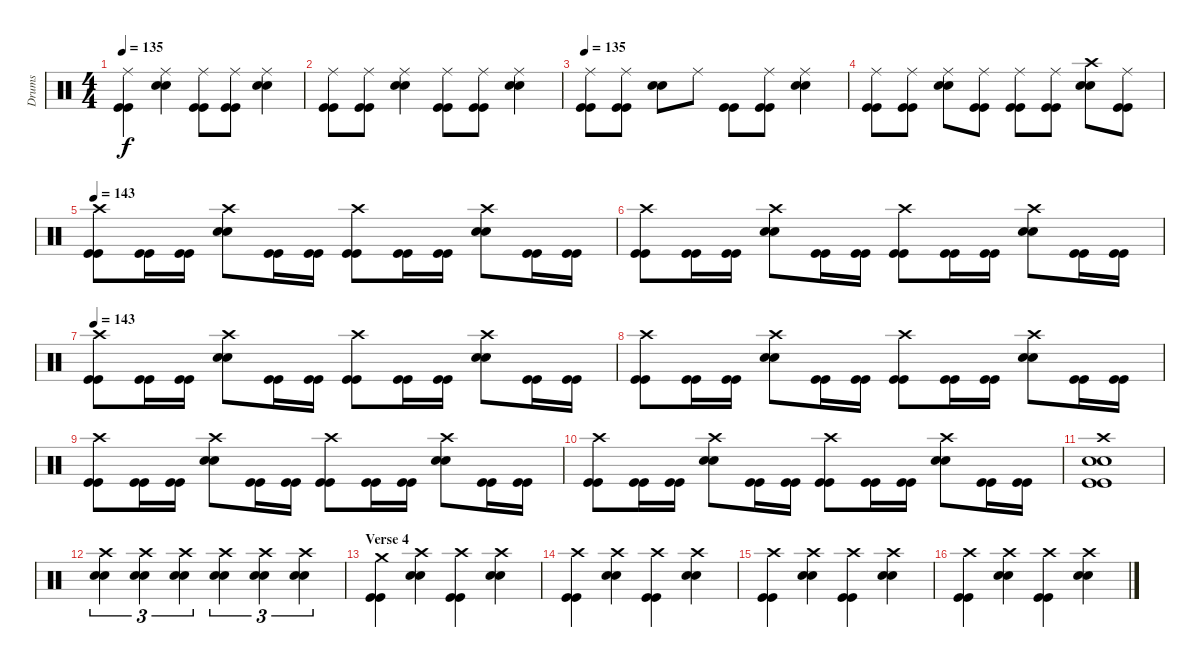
\track ("Drums" "Drums") {instrument percussion}
\staff {score}
\articulation defaults
\ts (4 4)
\tempo 135
\clef neutral
\ks c
("Ride (middle)" "Kick (hit)" "Kick (hit)").4{dy f} ("Ride (middle)" "Electric Snare (hit)" "Electric Snare (hit)").4 ("Ride (middle)" "Kick (hit)" "Kick (hit)").8 ("Ride (middle)" "Kick (hit)" "Kick (hit)").8 ("Ride (middle)" "Electric Snare (hit)" "Electric Snare (hit)").4 |
("Ride (middle)" "Kick (hit)" "Kick (hit)").8 ("Ride (middle)" "Kick (hit)" "Kick (hit)").8 ("Ride (middle)" "Electric Snare (hit)" "Electric Snare (hit)").4 ("Ride (middle)" "Kick (hit)" "Kick (hit)").8 ("Ride (middle)" "Kick (hit)" "Kick (hit)").8 ("Ride (middle)" "Electric Snare (hit)" "Electric Snare (hit)").4 |
\tempo 135
("Ride (middle)" "Kick (hit)" "Kick (hit)").8 ("Ride (middle)" "Kick (hit)" "Kick (hit)").8 ("Electric Snare (hit)" "Electric Snare (hit)").8 "Ride (middle)".8 ("Kick (hit)" "Kick (hit)").8 ("Ride (middle)" "Kick (hit)" "Kick (hit)").8 ("Ride (middle)" "Electric Snare (hit)" "Electric Snare (hit)").4 |
("Ride (middle)" "Kick (hit)" "Kick (hit)").8 ("Ride (middle)" "Kick (hit)" "Kick (hit)").8 ("Ride (middle)" "Electric Snare (hit)" "Electric Snare (hit)").8 ("Ride (middle)" "Kick (hit)" "Kick (hit)").8 ("Ride (middle)" "Kick (hit)" "Kick (hit)").8 ("Ride (middle)" "Kick (hit)" "Kick (hit)").8 ("Crash high (hit)" "Electric Snare (hit)" "Electric Snare (hit)").8 ("Ride (middle)" "Kick (hit)" "Kick (hit)").8 |
\tempo 143
("Crash high (hit)" "Kick (hit)" "Kick (hit)").8 ("Kick (hit)" "Kick (hit)").16 ("Kick (hit)" "Kick (hit)").16 ("Crash high (hit)" "Electric Snare (hit)" "Electric Snare (hit)").8 ("Kick (hit)" "Kick (hit)").16 ("Kick (hit)" "Kick (hit)").16 ("Crash high (hit)" "Kick (hit)" "Kick (hit)").8 ("Kick (hit)" "Kick (hit)").16 ("Kick (hit)" "Kick (hit)").16 ("Crash high (hit)" "Electric Snare (hit)" "Electric Snare (hit)").8 ("Kick (hit)" "Kick (hit)").16 ("Kick (hit)" "Kick (hit)").16 |
("Crash high (hit)" "Kick (hit)" "Kick (hit)").8 ("Kick (hit)" "Kick (hit)").16 ("Kick (hit)" "Kick (hit)").16 ("Crash high (hit)" "Electric Snare (hit)" "Electric Snare (hit)").8 ("Kick (hit)" "Kick (hit)").16 ("Kick (hit)" "Kick (hit)").16 ("Crash high (hit)" "Kick (hit)" "Kick (hit)").8 ("Kick (hit)" "Kick (hit)").16 ("Kick (hit)" "Kick (hit)").16 ("Crash high (hit)" "Electric Snare (hit)" "Electric Snare (hit)").8 ("Kick (hit)" "Kick (hit)").16 ("Kick (hit)" "Kick (hit)").16 |
\tempo 143
("Crash high (hit)" "Kick (hit)" "Kick (hit)").8 ("Kick (hit)" "Kick (hit)").16 ("Kick (hit)" "Kick (hit)").16 ("Crash high (hit)" "Electric Snare (hit)" "Electric Snare (hit)").8 ("Kick (hit)" "Kick (hit)").16 ("Kick (hit)" "Kick (hit)").16 ("Crash high (hit)" "Kick (hit)" "Kick (hit)").8 ("Kick (hit)" "Kick (hit)").16 ("Kick (hit)" "Kick (hit)").16 ("Crash high (hit)" "Electric Snare (hit)" "Electric Snare (hit)").8 ("Kick (hit)" "Kick (hit)").16 ("Kick (hit)" "Kick (hit)").16 |
("Crash high (hit)" "Kick (hit)" "Kick (hit)").8 ("Kick (hit)" "Kick (hit)").16 ("Kick (hit)" "Kick (hit)").16 ("Crash high (hit)" "Electric Snare (hit)" "Electric Snare (hit)").8 ("Kick (hit)" "Kick (hit)").16 ("Kick (hit)" "Kick (hit)").16 ("Crash high (hit)" "Kick (hit)" "Kick (hit)").8 ("Kick (hit)" "Kick (hit)").16 ("Kick (hit)" "Kick (hit)").16 ("Crash high (hit)" "Electric Snare (hit)" "Electric Snare (hit)").8 ("Kick (hit)" "Kick (hit)").16 ("Kick (hit)" "Kick (hit)").16 |
("Crash high (hit)" "Kick (hit)" "Kick (hit)").8 ("Kick (hit)" "Kick (hit)").16 ("Kick (hit)" "Kick (hit)").16 ("Crash high (hit)" "Electric Snare (hit)" "Electric Snare (hit)").8 ("Kick (hit)" "Kick (hit)").16 ("Kick (hit)" "Kick (hit)").16 ("Crash high (hit)" "Kick (hit)" "Kick (hit)").8 ("Kick (hit)" "Kick (hit)").16 ("Kick (hit)" "Kick (hit)").16 ("Crash high (hit)" "Electric Snare (hit)" "Electric Snare (hit)").8 ("Kick (hit)" "Kick (hit)").16 ("Kick (hit)" "Kick (hit)").16 |
("Crash high (hit)" "Kick (hit)" "Kick (hit)").8 ("Kick (hit)" "Kick (hit)").16 ("Kick (hit)" "Kick (hit)").16 ("Crash high (hit)" "Electric Snare (hit)" "Electric Snare (hit)").8 ("Kick (hit)" "Kick (hit)").16 ("Kick (hit)" "Kick (hit)").16 ("Crash high (hit)" "Kick (hit)" "Kick (hit)").8 ("Kick (hit)" "Kick (hit)").16 ("Kick (hit)" "Kick (hit)").16 ("Crash high (hit)" "Electric Snare (hit)" "Electric Snare (hit)").8 ("Kick (hit)" "Kick (hit)").16 ("Kick (hit)" "Kick (hit)").16 |
("Crash high (hit)" "Electric Snare (hit)" "Electric Snare (hit)" "Kick (hit)" "Kick (hit)").1 |
("Crash high (hit)" "Electric Snare (hit)" "Electric Snare (hit)").4{tu (3 2)} ("Crash high (hit)" "Electric Snare (hit)" "Electric Snare (hit)").4{tu (3 2)} ("Crash high (hit)" "Electric Snare (hit)" "Electric Snare (hit)").4{tu (3 2)} ("Crash high (hit)" "Electric Snare (hit)" "Electric Snare (hit)").4{tu (3 2)} ("Crash high (hit)" "Electric Snare (hit)" "Electric Snare (hit)").4{tu (3 2)} ("Crash high (hit)" "Electric Snare (hit)" "Electric Snare (hit)").4{tu (3 2)} |
\section ("" "Verse 4")
("Crash medium (hit)" "Kick (hit)" "Kick (hit)").4 ("Crash high (hit)" "Electric Snare (hit)" "Electric Snare (hit)").4 ("Crash high (hit)" "Kick (hit)" "Kick (hit)").4 ("Crash high (hit)" "Electric Snare (hit)" "Electric Snare (hit)").4 |
("Crash high (hit)" "Kick (hit)" "Kick (hit)").4 ("Crash high (hit)" "Electric Snare (hit)" "Electric Snare (hit)").4 ("Crash high (hit)" "Kick (hit)" "Kick (hit)").4 ("Crash high (hit)" "Electric Snare (hit)" "Electric Snare (hit)").4 |
("Crash high (hit)" "Kick (hit)" "Kick (hit)").4 ("Crash high (hit)" "Electric Snare (hit)" "Electric Snare (hit)").4 ("Crash high (hit)" "Kick (hit)" "Kick (hit)").4 ("Crash high (hit)" "Electric Snare (hit)" "Electric Snare (hit)").4 |
("Crash high (hit)" "Kick (hit)" "Kick (hit)").4 ("Crash high (hit)" "Electric Snare (hit)" "Electric Snare (hit)").4 ("Crash high (hit)" "Kick (hit)" "Kick (hit)").4 ("Crash high (hit)" "Electric Snare (hit)" "Electric Snare (hit)").4
